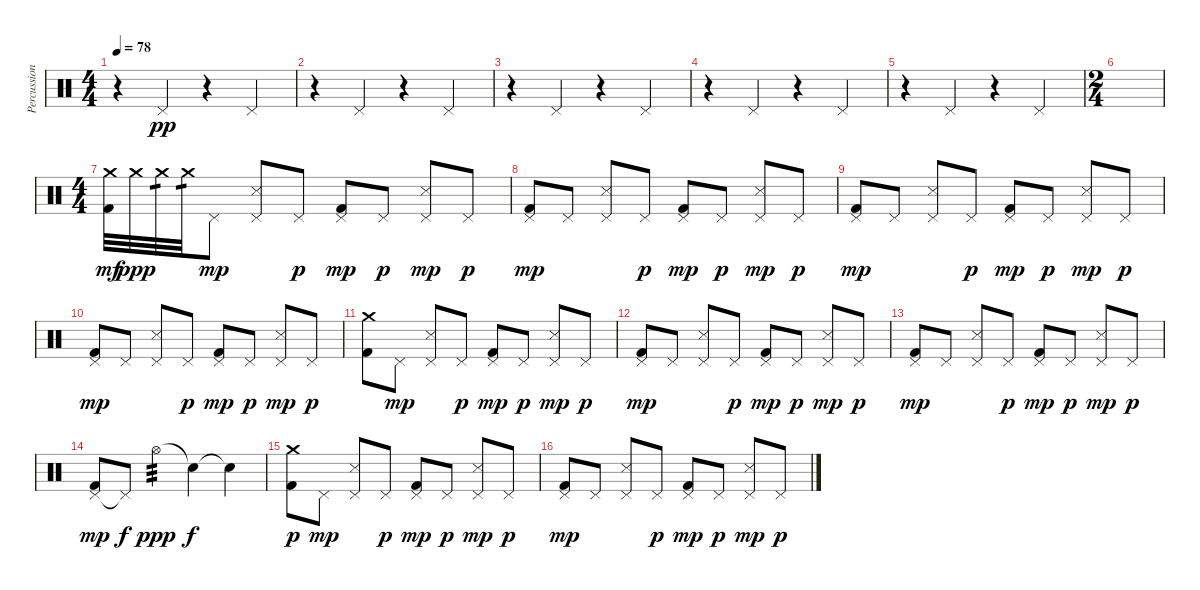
\track ("Percussion" "Percussion") {instrument percussion}
\staff {score}
\articulation defaults
\ts (4 4)
\tempo 78
\clef neutral
\ks c
r.4{dy pp} "Pedal Hi-Hat (hit)".4 r.4 "Pedal Hi-Hat (hit)".4 |
r.4 "Pedal Hi-Hat (hit)".4 r.4 "Pedal Hi-Hat (hit)".4 |
r.4 "Pedal Hi-Hat (hit)".4 r.4 "Pedal Hi-Hat (hit)".4 |
r.4 "Pedal Hi-Hat (hit)".4 r.4 "Pedal Hi-Hat (hit)".4 |
r.4 "Pedal Hi-Hat (hit)".4 r.4 "Pedal Hi-Hat (hit)".4 |
\ts (2 4)
|
\ts (4 4)
("Crash medium (hit)" "Kick (hit) 2").32{dy mf} "Crash medium (hit)".32{dy ppp} "Crash medium (hit)".32{tp 1} "Crash medium (hit)".32{tp 1} "Pedal Hi-Hat (hit)".8{dy mp} ("Pedal Hi-Hat (hit)" "Snare (side stick) 3").8 "Pedal Hi-Hat (hit)".8{dy p} ("Pedal Hi-Hat (hit)" "Kick (hit) 2").8{dy mp} "Pedal Hi-Hat (hit)".8{dy p} ("Pedal Hi-Hat (hit)" "Snare (side stick) 3").8{dy mp} "Pedal Hi-Hat (hit)".8{dy p} |
("Pedal Hi-Hat (hit)" "Kick (hit) 2").8{dy mp} "Pedal Hi-Hat (hit)".8 ("Pedal Hi-Hat (hit)" "Snare (side stick) 3").8 "Pedal Hi-Hat (hit)".8{dy p} ("Pedal Hi-Hat (hit)" "Kick (hit) 2").8{dy mp} "Pedal Hi-Hat (hit)".8{dy p} ("Pedal Hi-Hat (hit)" "Snare (side stick) 3").8{dy mp} "Pedal Hi-Hat (hit)".8{dy p} |
("Pedal Hi-Hat (hit)" "Kick (hit) 2").8{dy mp} "Pedal Hi-Hat (hit)".8 ("Pedal Hi-Hat (hit)" "Snare (side stick) 3").8 "Pedal Hi-Hat (hit)".8{dy p} ("Pedal Hi-Hat (hit)" "Kick (hit) 2").8{dy mp} "Pedal Hi-Hat (hit)".8{dy p} ("Pedal Hi-Hat (hit)" "Snare (side stick) 3").8{dy mp} "Pedal Hi-Hat (hit)".8{dy p} |
("Pedal Hi-Hat (hit)" "Kick (hit) 2").8{dy mp} "Pedal Hi-Hat (hit)".8 ("Pedal Hi-Hat (hit)" "Snare (side stick) 3").8 "Pedal Hi-Hat (hit)".8{dy p} ("Pedal Hi-Hat (hit)" "Kick (hit) 2").8{dy mp} "Pedal Hi-Hat (hit)".8{dy p} ("Pedal Hi-Hat (hit)" "Snare (side stick) 3").8{dy mp} "Pedal Hi-Hat (hit)".8{dy p} |
("Crash medium (hit)" "Kick (hit) 2").8 "Pedal Hi-Hat (hit)".8{dy mp} ("Pedal Hi-Hat (hit)" "Snare (side stick) 3").8 "Pedal Hi-Hat (hit)".8{dy p} ("Pedal Hi-Hat (hit)" "Kick (hit) 2").8{dy mp} "Pedal Hi-Hat (hit)".8{dy p} ("Pedal Hi-Hat (hit)" "Snare (side stick) 3").8{dy mp} "Pedal Hi-Hat (hit)".8{dy p} |
("Pedal Hi-Hat (hit)" "Kick (hit) 2").8{dy mp} "Pedal Hi-Hat (hit)".8 ("Pedal Hi-Hat (hit)" "Snare (side stick) 3").8 "Pedal Hi-Hat (hit)".8{dy p} ("Pedal Hi-Hat (hit)" "Kick (hit) 2").8{dy mp} "Pedal Hi-Hat (hit)".8{dy p} ("Pedal Hi-Hat (hit)" "Snare (side stick) 3").8{dy mp} "Pedal Hi-Hat (hit)".8{dy p} |
("Pedal Hi-Hat (hit)" "Kick (hit) 2").8{dy mp} "Pedal Hi-Hat (hit)".8 ("Pedal Hi-Hat (hit)" "Snare (side stick) 3").8 "Pedal Hi-Hat (hit)".8{dy p} ("Pedal Hi-Hat (hit)" "Kick (hit) 2").8{dy mp} "Pedal Hi-Hat (hit)".8{dy p} ("Pedal Hi-Hat (hit)" "Snare (side stick) 3").8{dy mp} "Pedal Hi-Hat (hit)".8{dy p} |
("Pedal Hi-Hat (hit)" "Kick (hit) 2").8{dy mp} "Pedal Hi-Hat (hit)"{t}.8{dy f} "Hi-Hat (open)".4{tp 3 dy ppp} "Snare (hit)"{t}.4{dy f} "Snare (hit)"{t}.4 |
("Crash medium (hit)" "Kick (hit) 2").8{dy p} "Pedal Hi-Hat (hit)".8{dy mp} ("Pedal Hi-Hat (hit)" "Snare (side stick) 3").8 "Pedal Hi-Hat (hit)".8{dy p} ("Pedal Hi-Hat (hit)" "Kick (hit) 2").8{dy mp} "Pedal Hi-Hat (hit)".8{dy p} ("Pedal Hi-Hat (hit)" "Snare (side stick) 3").8{dy mp} "Pedal Hi-Hat (hit)".8{dy p} |
("Pedal Hi-Hat (hit)" "Kick (hit) 2").8{dy mp} "Pedal Hi-Hat (hit)".8 ("Pedal Hi-Hat (hit)" "Snare (side stick) 3").8 "Pedal Hi-Hat (hit)".8{dy p} ("Pedal Hi-Hat (hit)" "Kick (hit) 2").8{dy mp} "Pedal Hi-Hat (hit)".8{dy p} ("Pedal Hi-Hat (hit)" "Snare (side stick) 3").8{dy mp} "Pedal Hi-Hat (hit)".8{dy p}
